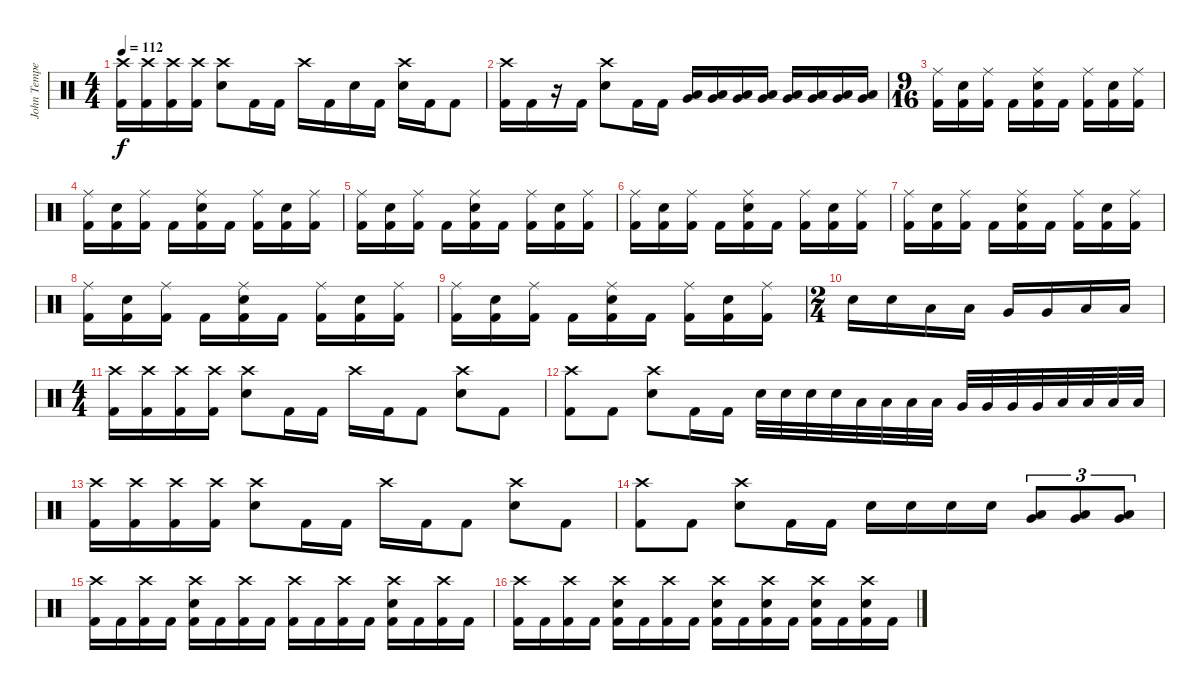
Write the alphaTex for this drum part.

\track ("John Tempesta" "John Tempe") {instrument percussion}
\staff {score}
\articulation defaults
\ts (4 4)
\tempo 112
\clef neutral
\ks c
("Crash high (hit)" "Kick (hit) 2").16{dy f} ("Crash high (hit)" "Kick (hit) 2").16 ("Crash high (hit)" "Kick (hit) 2").16 ("Crash high (hit)" "Kick (hit) 2").16 ("Crash high (hit)" "Electric Snare (hit)").8 "Kick (hit) 2".16 "Kick (hit) 2".16 "Crash high (hit)".16 "Kick (hit) 2".16 "Electric Snare (hit)".16 "Kick (hit) 2".16 ("Crash high (hit)" "Electric Snare (hit)").16 "Kick (hit) 2".16 "Kick (hit) 2".8 |
("Crash high (hit)" "Kick (hit) 2").16 "Kick (hit) 2".16 r.16 "Kick (hit) 2".16 ("Crash high (hit)" "Electric Snare (hit)").8 "Kick (hit) 2".16 "Kick (hit) 2".16 ("Very Low Tom (hit)" "Low Floor Tom (hit)").16 ("Very Low Tom (hit)" "Low Floor Tom (hit)").16 ("Very Low Tom (hit)" "Low Floor Tom (hit)").16 ("Very Low Tom (hit)" "Low Floor Tom (hit)").16 ("Very Low Tom (hit)" "Low Floor Tom (hit)").16 ("Very Low Tom (hit)" "Low Floor Tom (hit)").16 ("Very Low Tom (hit)" "Low Floor Tom (hit)").16 ("Very Low Tom (hit)" "Low Floor Tom (hit)").16 |
\ts (9 16)
("Ride (middle)" "Kick (hit) 2").16 ("Electric Snare (hit)" "Kick (hit) 2").16 ("Ride (middle)" "Kick (hit) 2").16 "Kick (hit) 2".16 ("Ride (middle)" "Electric Snare (hit)" "Kick (hit) 2").16 "Kick (hit) 2".16 ("Ride (middle)" "Kick (hit) 2").16 ("Electric Snare (hit)" "Kick (hit) 2").16 ("Ride (middle)" "Kick (hit) 2").16 |
("Ride (middle)" "Kick (hit) 2").16 ("Electric Snare (hit)" "Kick (hit) 2").16 ("Ride (middle)" "Kick (hit) 2").16 "Kick (hit) 2".16 ("Ride (middle)" "Electric Snare (hit)" "Kick (hit) 2").16 "Kick (hit) 2".16 ("Ride (middle)" "Kick (hit) 2").16 ("Electric Snare (hit)" "Kick (hit) 2").16 ("Ride (middle)" "Kick (hit) 2").16 |
("Ride (middle)" "Kick (hit) 2").16 ("Electric Snare (hit)" "Kick (hit) 2").16 ("Ride (middle)" "Kick (hit) 2").16 "Kick (hit) 2".16 ("Ride (middle)" "Electric Snare (hit)" "Kick (hit) 2").16 "Kick (hit) 2".16 ("Ride (middle)" "Kick (hit) 2").16 ("Electric Snare (hit)" "Kick (hit) 2").16 ("Ride (middle)" "Kick (hit) 2").16 |
("Ride (middle)" "Kick (hit) 2").16 ("Electric Snare (hit)" "Kick (hit) 2").16 ("Ride (middle)" "Kick (hit) 2").16 "Kick (hit) 2".16 ("Ride (middle)" "Electric Snare (hit)" "Kick (hit) 2").16 "Kick (hit) 2".16 ("Ride (middle)" "Kick (hit) 2").16 ("Electric Snare (hit)" "Kick (hit) 2").16 ("Ride (middle)" "Kick (hit) 2").16 |
("Ride (middle)" "Kick (hit) 2").16 ("Electric Snare (hit)" "Kick (hit) 2").16 ("Ride (middle)" "Kick (hit) 2").16 "Kick (hit) 2".16 ("Ride (middle)" "Electric Snare (hit)" "Kick (hit) 2").16 "Kick (hit) 2".16 ("Ride (middle)" "Kick (hit) 2").16 ("Electric Snare (hit)" "Kick (hit) 2").16 ("Ride (middle)" "Kick (hit) 2").16 |
("Ride (middle)" "Kick (hit) 2").16 ("Electric Snare (hit)" "Kick (hit) 2").16 ("Ride (middle)" "Kick (hit) 2").16 "Kick (hit) 2".16 ("Ride (middle)" "Electric Snare (hit)" "Kick (hit) 2").16 "Kick (hit) 2".16 ("Ride (middle)" "Kick (hit) 2").16 ("Electric Snare (hit)" "Kick (hit) 2").16 ("Ride (middle)" "Kick (hit) 2").16 |
("Ride (middle)" "Kick (hit) 2").16 ("Electric Snare (hit)" "Kick (hit) 2").16 ("Ride (middle)" "Kick (hit) 2").16 "Kick (hit) 2".16 ("Ride (middle)" "Electric Snare (hit)" "Kick (hit) 2").16 "Kick (hit) 2".16 ("Ride (middle)" "Kick (hit) 2").16 ("Electric Snare (hit)" "Kick (hit) 2").16 ("Ride (middle)" "Kick (hit) 2").16 |
\ts (2 4)
"Electric Snare (hit)".16 "Electric Snare (hit)".16 "Low Tom (hit)".16 "Low Tom (hit)".16 "Very Low Tom (hit)".16 "Very Low Tom (hit)".16 "Low Floor Tom (hit)".16 "Low Floor Tom (hit)".16 |
\ts (4 4)
("Crash high (hit)" "Kick (hit) 2").16 ("Crash high (hit)" "Kick (hit) 2").16 ("Crash high (hit)" "Kick (hit) 2").16 ("Crash high (hit)" "Kick (hit) 2").16 ("Crash high (hit)" "Electric Snare (hit)").8 "Kick (hit) 2".16 "Kick (hit) 2".16 "Crash high (hit)".16 "Kick (hit) 2".16 "Kick (hit) 2".8 ("Crash high (hit)" "Electric Snare (hit)").8 "Kick (hit) 2".8 |
("Crash high (hit)" "Kick (hit) 2").8 "Kick (hit) 2".8 ("Crash high (hit)" "Electric Snare (hit)").8 "Kick (hit) 2".16 "Kick (hit) 2".16 "Electric Snare (hit)".32 "Electric Snare (hit)".32 "Electric Snare (hit)".32 "Electric Snare (hit)".32 "Low Tom (hit)".32 "Low Tom (hit)".32 "Low Tom (hit)".32 "Low Tom (hit)".32 "Very Low Tom (hit)".32 "Very Low Tom (hit)".32 "Very Low Tom (hit)".32 "Very Low Tom (hit)".32 "Low Floor Tom (hit)".32 "Low Floor Tom (hit)".32 "Low Floor Tom (hit)".32 "Low Floor Tom (hit)".32 |
("Crash high (hit)" "Kick (hit) 2").16 ("Crash high (hit)" "Kick (hit) 2").16 ("Crash high (hit)" "Kick (hit) 2").16 ("Crash high (hit)" "Kick (hit) 2").16 ("Crash high (hit)" "Electric Snare (hit)").8 "Kick (hit) 2".16 "Kick (hit) 2".16 "Crash high (hit)".16 "Kick (hit) 2".16 "Kick (hit) 2".8 ("Crash high (hit)" "Electric Snare (hit)").8 "Kick (hit) 2".8 |
("Crash high (hit)" "Kick (hit) 2").8 "Kick (hit) 2".8 ("Crash high (hit)" "Electric Snare (hit)").8 "Kick (hit) 2".16 "Kick (hit) 2".16 "Electric Snare (hit)".16 "Electric Snare (hit)".16 "Electric Snare (hit)".16 "Electric Snare (hit)".16 ("Low Tom (hit)" "Very Low Tom (hit)").8{tu (3 2)} ("Low Tom (hit)" "Very Low Tom (hit)").8{tu (3 2)} ("Very Low Tom (hit)" "Low Floor Tom (hit)").8{tu (3 2)} |
("Crash high (hit)" "Kick (hit) 2").16 "Kick (hit) 2".16 ("Crash high (hit)" "Kick (hit) 2").16 "Kick (hit) 2".16 ("Crash high (hit)" "Electric Snare (hit)" "Kick (hit) 2").16 "Kick (hit) 2".16 ("Crash high (hit)" "Kick (hit) 2").16 "Kick (hit) 2".16 ("Crash high (hit)" "Kick (hit) 2").16 "Kick (hit) 2".16 ("Crash high (hit)" "Kick (hit) 2").16 "Kick (hit) 2".16 ("Crash high (hit)" "Electric Snare (hit)" "Kick (hit) 2").16 "Kick (hit) 2".16 ("Crash high (hit)" "Kick (hit) 2").16 "Kick (hit) 2".16 |
("Crash high (hit)" "Kick (hit) 2").16 "Kick (hit) 2".16 ("Crash high (hit)" "Kick (hit) 2").16 "Kick (hit) 2".16 ("Crash high (hit)" "Electric Snare (hit)" "Kick (hit) 2").16 "Kick (hit) 2".16 ("Crash high (hit)" "Kick (hit) 2").16 "Kick (hit) 2".16 ("Crash high (hit)" "Electric Snare (hit)" "Kick (hit) 2").16 "Kick (hit) 2".16 ("Crash high (hit)" "Electric Snare (hit)" "Kick (hit) 2").16 "Kick (hit) 2".16 ("Crash high (hit)" "Electric Snare (hit)" "Kick (hit) 2").16 "Kick (hit) 2".16 ("Crash high (hit)" "Electric Snare (hit)" "Kick (hit) 2").16 "Kick (hit) 2".16
